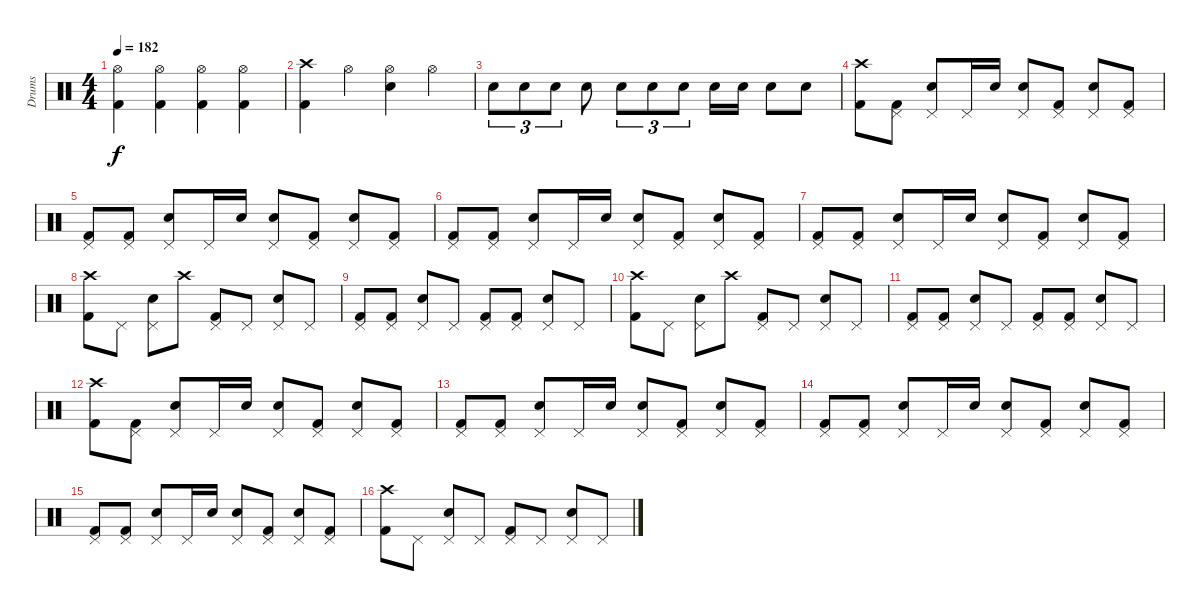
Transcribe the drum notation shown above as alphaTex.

\track ("Drums" "Drums") {instrument percussion}
\staff {score}
\articulation defaults
\ts (4 4)
\tempo 182
\clef neutral
\ks c
("Hi-Hat (open)" "Kick (hit) 2").4{dy f} ("Hi-Hat (open)" "Kick (hit) 2").4 ("Hi-Hat (open)" "Kick (hit) 2").4 ("Hi-Hat (open)" "Kick (hit) 2").4 |
("Crash high (hit)" "Kick (hit) 2").4 "Hi-Hat (open)".4 ("Hi-Hat (open)" "Electric Snare (hit)").4 "Hi-Hat (open)".4 |
"Electric Snare (hit)".8{tu (3 2)} "Electric Snare (hit)".8{tu (3 2)} "Electric Snare (hit)".8{tu (3 2)} "Electric Snare (hit)".8 "Electric Snare (hit)".8{tu (3 2)} "Electric Snare (hit)".8{tu (3 2)} "Electric Snare (hit)".8{tu (3 2)} "Electric Snare (hit)".16 "Electric Snare (hit)".16 "Electric Snare (hit)".8 "Electric Snare (hit)".8 |
("Crash high (hit)" "Kick (hit) 2").8 ("Pedal Hi-Hat (hit)" "Kick (hit) 2").8 ("Pedal Hi-Hat (hit)" "Electric Snare (hit)").8 "Pedal Hi-Hat (hit)".16 "Electric Snare (hit)".16 ("Pedal Hi-Hat (hit)" "Electric Snare (hit)").8 ("Pedal Hi-Hat (hit)" "Kick (hit) 2").8 ("Pedal Hi-Hat (hit)" "Electric Snare (hit)").8 ("Pedal Hi-Hat (hit)" "Kick (hit) 2").8 |
("Pedal Hi-Hat (hit)" "Kick (hit) 2").8 ("Pedal Hi-Hat (hit)" "Kick (hit) 2").8 ("Pedal Hi-Hat (hit)" "Electric Snare (hit)").8 "Pedal Hi-Hat (hit)".16 "Electric Snare (hit)".16 ("Pedal Hi-Hat (hit)" "Electric Snare (hit)").8 ("Pedal Hi-Hat (hit)" "Kick (hit) 2").8 ("Pedal Hi-Hat (hit)" "Electric Snare (hit)").8 ("Pedal Hi-Hat (hit)" "Kick (hit) 2").8 |
("Pedal Hi-Hat (hit)" "Kick (hit) 2").8 ("Pedal Hi-Hat (hit)" "Kick (hit) 2").8 ("Pedal Hi-Hat (hit)" "Electric Snare (hit)").8 "Pedal Hi-Hat (hit)".16 "Electric Snare (hit)".16 ("Pedal Hi-Hat (hit)" "Electric Snare (hit)").8 ("Pedal Hi-Hat (hit)" "Kick (hit) 2").8 ("Pedal Hi-Hat (hit)" "Electric Snare (hit)").8 ("Pedal Hi-Hat (hit)" "Kick (hit) 2").8 |
("Pedal Hi-Hat (hit)" "Kick (hit) 2").8 ("Pedal Hi-Hat (hit)" "Kick (hit) 2").8 ("Pedal Hi-Hat (hit)" "Electric Snare (hit)").8 "Pedal Hi-Hat (hit)".16 "Electric Snare (hit)".16 ("Pedal Hi-Hat (hit)" "Electric Snare (hit)").8 ("Pedal Hi-Hat (hit)" "Kick (hit) 2").8 ("Pedal Hi-Hat (hit)" "Electric Snare (hit)").8 ("Pedal Hi-Hat (hit)" "Kick (hit) 2").8 |
("Crash high (hit)" "Kick (hit) 2").8 "Pedal Hi-Hat (hit)".8 ("Pedal Hi-Hat (hit)" "Electric Snare (hit)").8 "Crash high (hit)".8 ("Pedal Hi-Hat (hit)" "Kick (hit) 2").8 "Pedal Hi-Hat (hit)".8 ("Pedal Hi-Hat (hit)" "Electric Snare (hit)").8 "Pedal Hi-Hat (hit)".8 |
("Pedal Hi-Hat (hit)" "Kick (hit) 2").8 ("Pedal Hi-Hat (hit)" "Kick (hit) 2").8 ("Pedal Hi-Hat (hit)" "Electric Snare (hit)").8 "Pedal Hi-Hat (hit)".8 ("Pedal Hi-Hat (hit)" "Kick (hit) 2").8 ("Pedal Hi-Hat (hit)" "Kick (hit) 2").8 ("Pedal Hi-Hat (hit)" "Electric Snare (hit)").8 "Pedal Hi-Hat (hit)".8 |
("Crash high (hit)" "Kick (hit) 2").8 "Pedal Hi-Hat (hit)".8 ("Pedal Hi-Hat (hit)" "Electric Snare (hit)").8 "Crash high (hit)".8 ("Pedal Hi-Hat (hit)" "Kick (hit) 2").8 "Pedal Hi-Hat (hit)".8 ("Pedal Hi-Hat (hit)" "Electric Snare (hit)").8 "Pedal Hi-Hat (hit)".8 |
("Pedal Hi-Hat (hit)" "Kick (hit) 2").8 ("Pedal Hi-Hat (hit)" "Kick (hit) 2").8 ("Pedal Hi-Hat (hit)" "Electric Snare (hit)").8 "Pedal Hi-Hat (hit)".8 ("Pedal Hi-Hat (hit)" "Kick (hit) 2").8 ("Pedal Hi-Hat (hit)" "Kick (hit) 2").8 ("Pedal Hi-Hat (hit)" "Electric Snare (hit)").8 "Pedal Hi-Hat (hit)".8 |
("Crash high (hit)" "Kick (hit) 2").8 ("Pedal Hi-Hat (hit)" "Kick (hit) 2").8 ("Pedal Hi-Hat (hit)" "Electric Snare (hit)").8 "Pedal Hi-Hat (hit)".16 "Electric Snare (hit)".16 ("Pedal Hi-Hat (hit)" "Electric Snare (hit)").8 ("Pedal Hi-Hat (hit)" "Kick (hit) 2").8 ("Pedal Hi-Hat (hit)" "Electric Snare (hit)").8 ("Pedal Hi-Hat (hit)" "Kick (hit) 2").8 |
("Pedal Hi-Hat (hit)" "Kick (hit) 2").8 ("Pedal Hi-Hat (hit)" "Kick (hit) 2").8 ("Pedal Hi-Hat (hit)" "Electric Snare (hit)").8 "Pedal Hi-Hat (hit)".16 "Electric Snare (hit)".16 ("Pedal Hi-Hat (hit)" "Electric Snare (hit)").8 ("Pedal Hi-Hat (hit)" "Kick (hit) 2").8 ("Pedal Hi-Hat (hit)" "Electric Snare (hit)").8 ("Pedal Hi-Hat (hit)" "Kick (hit) 2").8 |
("Pedal Hi-Hat (hit)" "Kick (hit) 2").8 ("Pedal Hi-Hat (hit)" "Kick (hit) 2").8 ("Pedal Hi-Hat (hit)" "Electric Snare (hit)").8 "Pedal Hi-Hat (hit)".16 "Electric Snare (hit)".16 ("Pedal Hi-Hat (hit)" "Electric Snare (hit)").8 ("Pedal Hi-Hat (hit)" "Kick (hit) 2").8 ("Pedal Hi-Hat (hit)" "Electric Snare (hit)").8 ("Pedal Hi-Hat (hit)" "Kick (hit) 2").8 |
("Pedal Hi-Hat (hit)" "Kick (hit) 2").8 ("Pedal Hi-Hat (hit)" "Kick (hit) 2").8 ("Pedal Hi-Hat (hit)" "Electric Snare (hit)").8 "Pedal Hi-Hat (hit)".16 "Electric Snare (hit)".16 ("Pedal Hi-Hat (hit)" "Electric Snare (hit)").8 ("Pedal Hi-Hat (hit)" "Kick (hit) 2").8 ("Pedal Hi-Hat (hit)" "Electric Snare (hit)").8 ("Pedal Hi-Hat (hit)" "Kick (hit) 2").8 |
("Crash high (hit)" "Kick (hit) 2").8 "Pedal Hi-Hat (hit)".8 ("Pedal Hi-Hat (hit)" "Electric Snare (hit)").8 "Pedal Hi-Hat (hit)".8 ("Pedal Hi-Hat (hit)" "Kick (hit) 2").8 "Pedal Hi-Hat (hit)".8 ("Pedal Hi-Hat (hit)" "Electric Snare (hit)").8 "Pedal Hi-Hat (hit)".8
